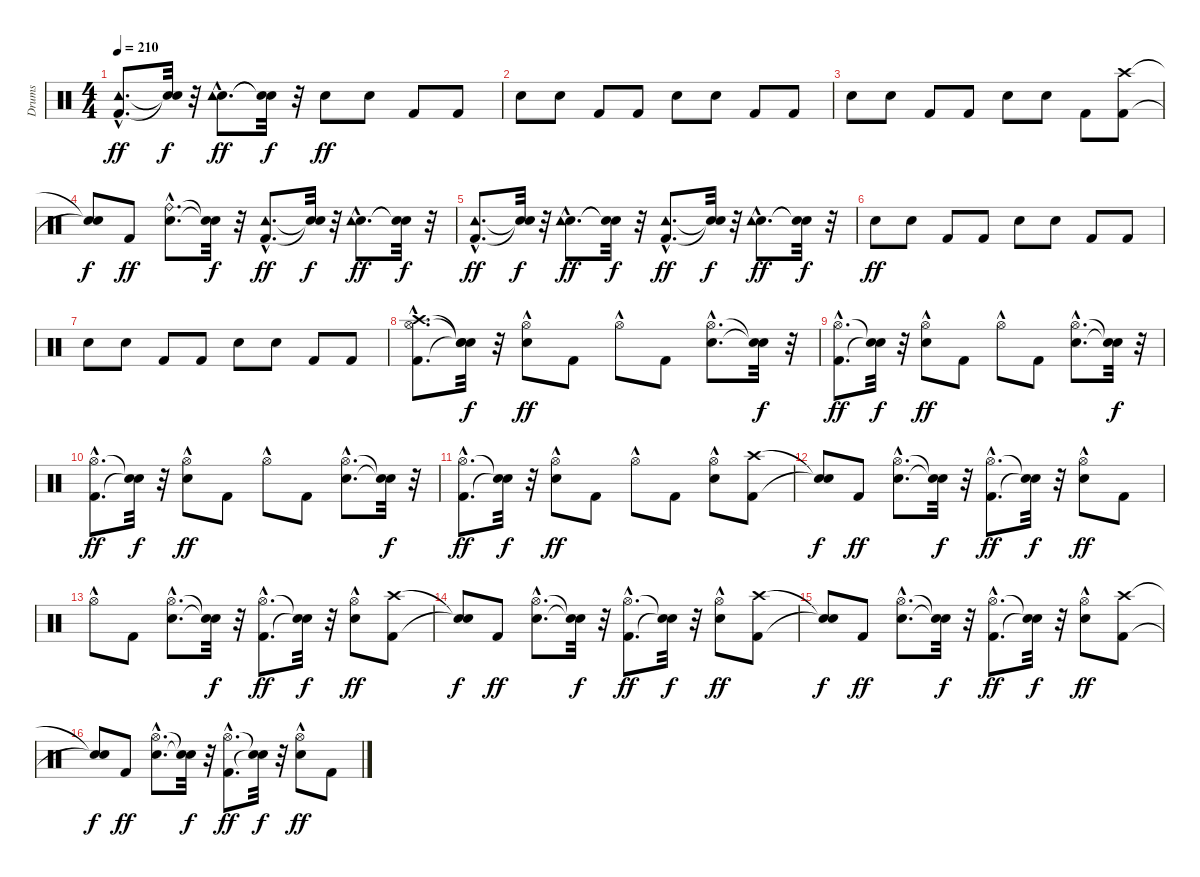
\track ("Drums" "Drums") {instrument percussion}
\staff {score}
\articulation defaults
\ts (4 4)
\tempo 210
\clef neutral
\ks c
("Kick (hit) 2"{hac} "Tambourine (hit)"{hac}).8{d dy ff} ("Snare (hit)"{t} "Snare (hit)"{t}).32{dy f} r.32 ("Snare (hit) 2"{hac} "Tambourine (hit)"{hac}).8{d dy ff} ("Snare (hit)"{t} "Snare (hit)"{t}).32{dy f} r.32 "Snare (hit) 2".8{dy ff} "Snare (hit) 2".8 "Kick (hit) 2".8 "Kick (hit) 2".8 |
"Snare (hit) 2".8 "Snare (hit) 2".8 "Kick (hit) 2".8 "Kick (hit) 2".8 "Snare (hit) 2".8 "Snare (hit) 2".8 "Kick (hit) 2".8 "Kick (hit) 2".8 |
"Snare (hit) 2".8 "Snare (hit) 2".8 "Kick (hit) 2".8 "Kick (hit) 2".8 "Snare (hit) 2".8 "Snare (hit) 2".8 "Kick (hit) 2".8 ("Kick (hit) 2" "Crash high (hit)").8 |
("Snare (hit)"{t} "Snare (hit)"{t}).8{dy f} "Kick (hit) 2".8{dy ff} ("Snare (hit) 2"{hac} "Ride (bell)"{hac}).8{d} ("Snare (hit)"{t} "Snare (hit)"{t}).32{dy f} r.32 ("Kick (hit) 2"{hac} "Tambourine (hit)"{hac}).8{d dy ff} ("Snare (hit)"{t} "Snare (hit)"{t}).32{dy f} r.32 ("Snare (hit) 2"{hac} "Tambourine (hit)"{hac}).8{d dy ff} ("Snare (hit)"{t} "Snare (hit)"{t}).32{dy f} r.32 |
("Kick (hit) 2"{hac} "Tambourine (hit)"{hac}).8{d dy ff} ("Snare (hit)"{t} "Snare (hit)"{t}).32{dy f} r.32 ("Snare (hit) 2"{hac} "Tambourine (hit)"{hac}).8{d dy ff} ("Snare (hit)"{t} "Snare (hit)"{t}).32{dy f} r.32 ("Kick (hit) 2"{hac} "Tambourine (hit)"{hac}).8{d dy ff} ("Snare (hit)"{t} "Snare (hit)"{t}).32{dy f} r.32 ("Snare (hit) 2"{hac} "Tambourine (hit)"{hac}).8{d dy ff} ("Snare (hit)"{t} "Snare (hit)"{t}).32{dy f} r.32 |
"Snare (hit) 2".8{dy ff} "Snare (hit) 2".8 "Kick (hit) 2".8 "Kick (hit) 2".8 "Snare (hit) 2".8 "Snare (hit) 2".8 "Kick (hit) 2".8 "Kick (hit) 2".8 |
"Snare (hit) 2".8 "Snare (hit) 2".8 "Kick (hit) 2".8 "Kick (hit) 2".8 "Snare (hit) 2".8 "Snare (hit) 2".8 "Kick (hit) 2".8 "Kick (hit) 2".8 |
("Kick (hit) 2"{hac} "Hi-Hat (open)"{hac} "Crash high (hit)"{hac}).8{d} ("Snare (hit)"{t} "Snare (hit)"{t} "Snare (hit)"{t}).32{dy f} r.32 ("Snare (hit) 2" "Hi-Hat (open)"{hac}).8{dy ff} "Kick (hit) 2".8 "Hi-Hat (open)"{hac}.8 "Kick (hit) 2".8 ("Snare (hit) 2"{hac} "Hi-Hat (open)"{hac}).8{d} ("Snare (hit)"{t} "Snare (hit)"{t}).32{dy f} r.32 |
("Kick (hit) 2"{hac} "Hi-Hat (open)"{hac}).8{d dy ff} ("Snare (hit)"{t} "Snare (hit)"{t}).32{dy f} r.32 ("Snare (hit) 2" "Hi-Hat (open)"{hac}).8{dy ff} "Kick (hit) 2".8 "Hi-Hat (open)"{hac}.8 "Kick (hit) 2".8 ("Snare (hit) 2"{hac} "Hi-Hat (open)"{hac}).8{d} ("Snare (hit)"{t} "Snare (hit)"{t}).32{dy f} r.32 |
("Kick (hit) 2"{hac} "Hi-Hat (open)"{hac}).8{d dy ff} ("Snare (hit)"{t} "Snare (hit)"{t}).32{dy f} r.32 ("Snare (hit) 2" "Hi-Hat (open)"{hac}).8{dy ff} "Kick (hit) 2".8 "Hi-Hat (open)"{hac}.8 "Kick (hit) 2".8 ("Snare (hit) 2"{hac} "Hi-Hat (open)"{hac}).8{d} ("Snare (hit)"{t} "Snare (hit)"{t}).32{dy f} r.32 |
("Kick (hit) 2"{hac} "Hi-Hat (open)"{hac}).8{d dy ff} ("Snare (hit)"{t} "Snare (hit)"{t}).32{dy f} r.32 ("Snare (hit) 2" "Hi-Hat (open)"{hac}).8{dy ff} "Kick (hit) 2".8 "Hi-Hat (open)"{hac}.8 "Kick (hit) 2".8 ("Snare (hit) 2" "Hi-Hat (open)"{hac}).8 ("Kick (hit) 2" "Crash high (hit)").8 |
("Snare (hit)"{t} "Snare (hit)"{t}).8{dy f} "Kick (hit) 2".8{dy ff} ("Snare (hit) 2"{hac} "Hi-Hat (open)"{hac}).8{d} ("Snare (hit)"{t} "Snare (hit)"{t}).32{dy f} r.32 ("Kick (hit) 2"{hac} "Hi-Hat (open)"{hac}).8{d dy ff} ("Snare (hit)"{t} "Snare (hit)"{t}).32{dy f} r.32 ("Snare (hit) 2" "Hi-Hat (open)"{hac}).8{dy ff} "Kick (hit) 2".8 |
"Hi-Hat (open)"{hac}.8 "Kick (hit) 2".8 ("Snare (hit) 2"{hac} "Hi-Hat (open)"{hac}).8{d} ("Snare (hit)"{t} "Snare (hit)"{t}).32{dy f} r.32 ("Kick (hit) 2"{hac} "Hi-Hat (open)"{hac}).8{d dy ff} ("Snare (hit)"{t} "Snare (hit)"{t}).32{dy f} r.32 ("Snare (hit) 2" "Hi-Hat (open)"{hac}).8{dy ff} ("Kick (hit) 2" "Crash high (hit)").8 |
("Snare (hit)"{t} "Snare (hit)"{t}).8{dy f} "Kick (hit) 2".8{dy ff} ("Snare (hit) 2"{hac} "Hi-Hat (open)"{hac}).8{d} ("Snare (hit)"{t} "Snare (hit)"{t}).32{dy f} r.32 ("Kick (hit) 2"{hac} "Hi-Hat (open)"{hac}).8{d dy ff} ("Snare (hit)"{t} "Snare (hit)"{t}).32{dy f} r.32 ("Snare (hit) 2" "Hi-Hat (open)"{hac}).8{dy ff} ("Kick (hit) 2" "Crash high (hit)").8 |
("Snare (hit)"{t} "Snare (hit)"{t}).8{dy f} "Kick (hit) 2".8{dy ff} ("Snare (hit) 2"{hac} "Hi-Hat (open)"{hac}).8{d} ("Snare (hit)"{t} "Snare (hit)"{t}).32{dy f} r.32 ("Kick (hit) 2"{hac} "Hi-Hat (open)"{hac}).8{d dy ff} ("Snare (hit)"{t} "Snare (hit)"{t}).32{dy f} r.32 ("Snare (hit) 2" "Hi-Hat (open)"{hac}).8{dy ff} ("Kick (hit) 2" "Crash high (hit)").8 |
("Snare (hit)"{t} "Snare (hit)"{t}).8{dy f} "Kick (hit) 2".8{dy ff} ("Snare (hit) 2"{hac} "Hi-Hat (open)"{hac}).8{d} ("Snare (hit)"{t} "Snare (hit)"{t}).32{dy f} r.32 ("Kick (hit) 2"{hac} "Hi-Hat (open)"{hac}).8{d dy ff} ("Snare (hit)"{t} "Snare (hit)"{t}).32{dy f} r.32 ("Snare (hit) 2" "Hi-Hat (open)"{hac}).8{dy ff} "Kick (hit) 2".8
